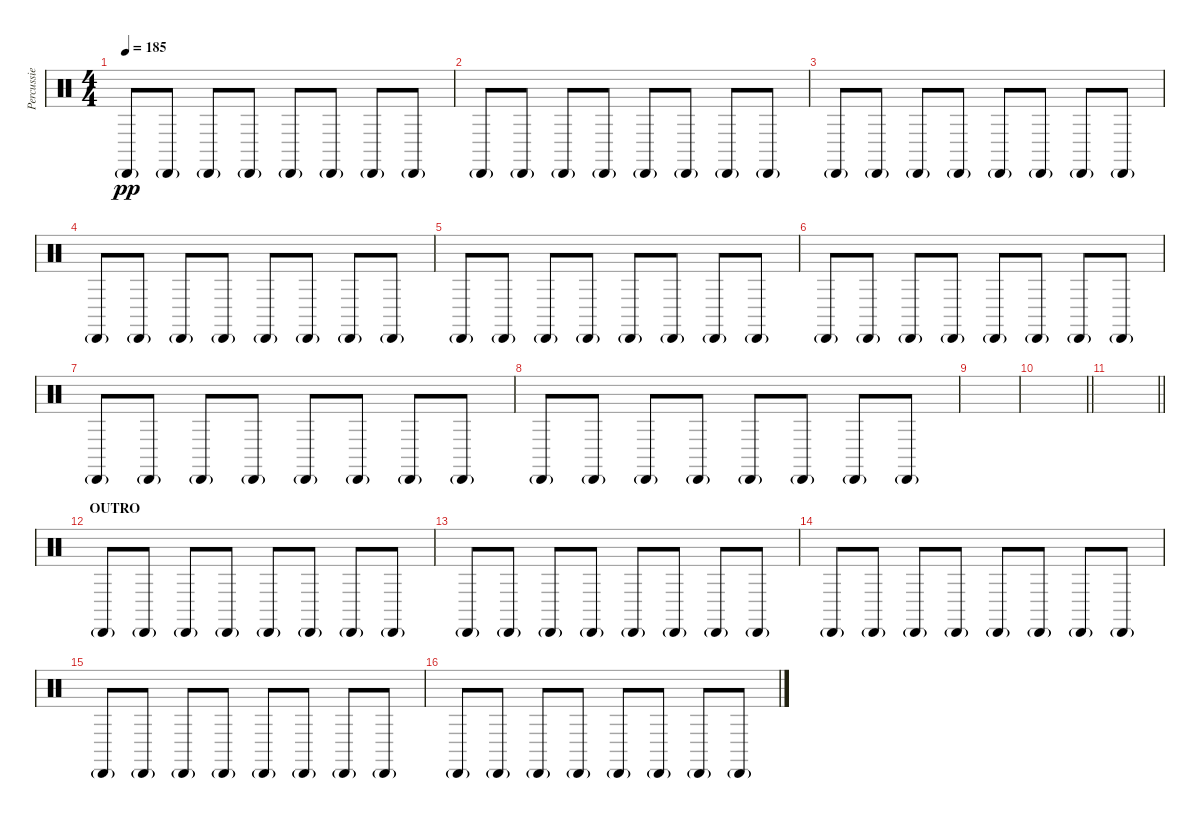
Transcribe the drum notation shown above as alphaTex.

\track ("Percussie" "Percussie") {instrument percussion}
\staff {score}
\articulation defaults
\ts (4 4)
\tempo 185
\clef neutral
\ks c "Cabasa (hit)"{g}.8{dy pp} "Cabasa (hit)"{g}.8 "Cabasa (hit)"{g}.8 "Cabasa (hit)"{g}.8 "Cabasa (hit)"{g}.8 "Cabasa (hit)"{g}.8 "Cabasa (hit)"{g}.8 "Cabasa (hit)"{g}.8
|
"Cabasa (hit)"{g}.8 "Cabasa (hit)"{g}.8 "Cabasa (hit)"{g}.8 "Cabasa (hit)"{g}.8 "Cabasa (hit)"{g}.8 "Cabasa (hit)"{g}.8 "Cabasa (hit)"{g}.8 "Cabasa (hit)"{g}.8 |
"Cabasa (hit)"{g}.8 "Cabasa (hit)"{g}.8 "Cabasa (hit)"{g}.8 "Cabasa (hit)"{g}.8 "Cabasa (hit)"{g}.8 "Cabasa (hit)"{g}.8 "Cabasa (hit)"{g}.8 "Cabasa (hit)"{g}.8 |
"Cabasa (hit)"{g}.8 "Cabasa (hit)"{g}.8 "Cabasa (hit)"{g}.8 "Cabasa (hit)"{g}.8 "Cabasa (hit)"{g}.8 "Cabasa (hit)"{g}.8 "Cabasa (hit)"{g}.8 "Cabasa (hit)"{g}.8 |
"Cabasa (hit)"{g}.8 "Cabasa (hit)"{g}.8 "Cabasa (hit)"{g}.8 "Cabasa (hit)"{g}.8 "Cabasa (hit)"{g}.8 "Cabasa (hit)"{g}.8 "Cabasa (hit)"{g}.8 "Cabasa (hit)"{g}.8 |
"Cabasa (hit)"{g}.8 "Cabasa (hit)"{g}.8 "Cabasa (hit)"{g}.8 "Cabasa (hit)"{g}.8 "Cabasa (hit)"{g}.8 "Cabasa (hit)"{g}.8 "Cabasa (hit)"{g}.8 "Cabasa (hit)"{g}.8 |
"Cabasa (hit)"{g}.8 "Cabasa (hit)"{g}.8 "Cabasa (hit)"{g}.8 "Cabasa (hit)"{g}.8 "Cabasa (hit)"{g}.8 "Cabasa (hit)"{g}.8 "Cabasa (hit)"{g}.8 "Cabasa (hit)"{g}.8 |
"Cabasa (hit)"{g}.8 "Cabasa (hit)"{g}.8 "Cabasa (hit)"{g}.8 "Cabasa (hit)"{g}.8 "Cabasa (hit)"{g}.8 "Cabasa (hit)"{g}.8 "Cabasa (hit)"{g}.8 "Cabasa (hit)"{g}.8 |
|
\barLineRight lightlight
|
\barLineRight lightlight
|
\section ("" "OUTRO")
"Cabasa (hit)"{g}.8 "Cabasa (hit)"{g}.8 "Cabasa (hit)"{g}.8 "Cabasa (hit)"{g}.8 "Cabasa (hit)"{g}.8 "Cabasa (hit)"{g}.8 "Cabasa (hit)"{g}.8 "Cabasa (hit)"{g}.8 |
"Cabasa (hit)"{g}.8 "Cabasa (hit)"{g}.8 "Cabasa (hit)"{g}.8 "Cabasa (hit)"{g}.8 "Cabasa (hit)"{g}.8 "Cabasa (hit)"{g}.8 "Cabasa (hit)"{g}.8 "Cabasa (hit)"{g}.8 |
"Cabasa (hit)"{g}.8 "Cabasa (hit)"{g}.8 "Cabasa (hit)"{g}.8 "Cabasa (hit)"{g}.8 "Cabasa (hit)"{g}.8 "Cabasa (hit)"{g}.8 "Cabasa (hit)"{g}.8 "Cabasa (hit)"{g}.8 |
"Cabasa (hit)"{g}.8 "Cabasa (hit)"{g}.8 "Cabasa (hit)"{g}.8 "Cabasa (hit)"{g}.8 "Cabasa (hit)"{g}.8 "Cabasa (hit)"{g}.8 "Cabasa (hit)"{g}.8 "Cabasa (hit)"{g}.8 |
"Cabasa (hit)"{g}.8 "Cabasa (hit)"{g}.8 "Cabasa (hit)"{g}.8 "Cabasa (hit)"{g}.8 "Cabasa (hit)"{g}.8 "Cabasa (hit)"{g}.8 "Cabasa (hit)"{g}.8 "Cabasa (hit)"{g}.8
